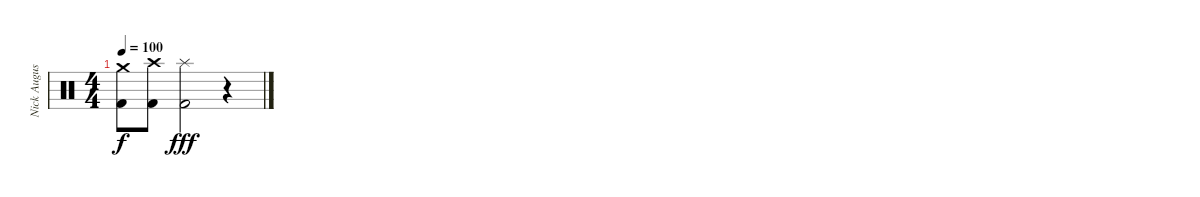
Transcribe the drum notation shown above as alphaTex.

\track ("Nick Augusto" "Nick Augus") {instrument percussion}
\staff {score}
\articulation defaults
\ts (4 4)
\tempo 100
\clef neutral
\ks c
("Crash medium (hit)" "Kick (hit) 2").8{dy f} ("Crash high (hit)" "Kick (hit) 2").8 ("Splash (hit)" "Kick (hit) 2").2{dy fff} r.4
